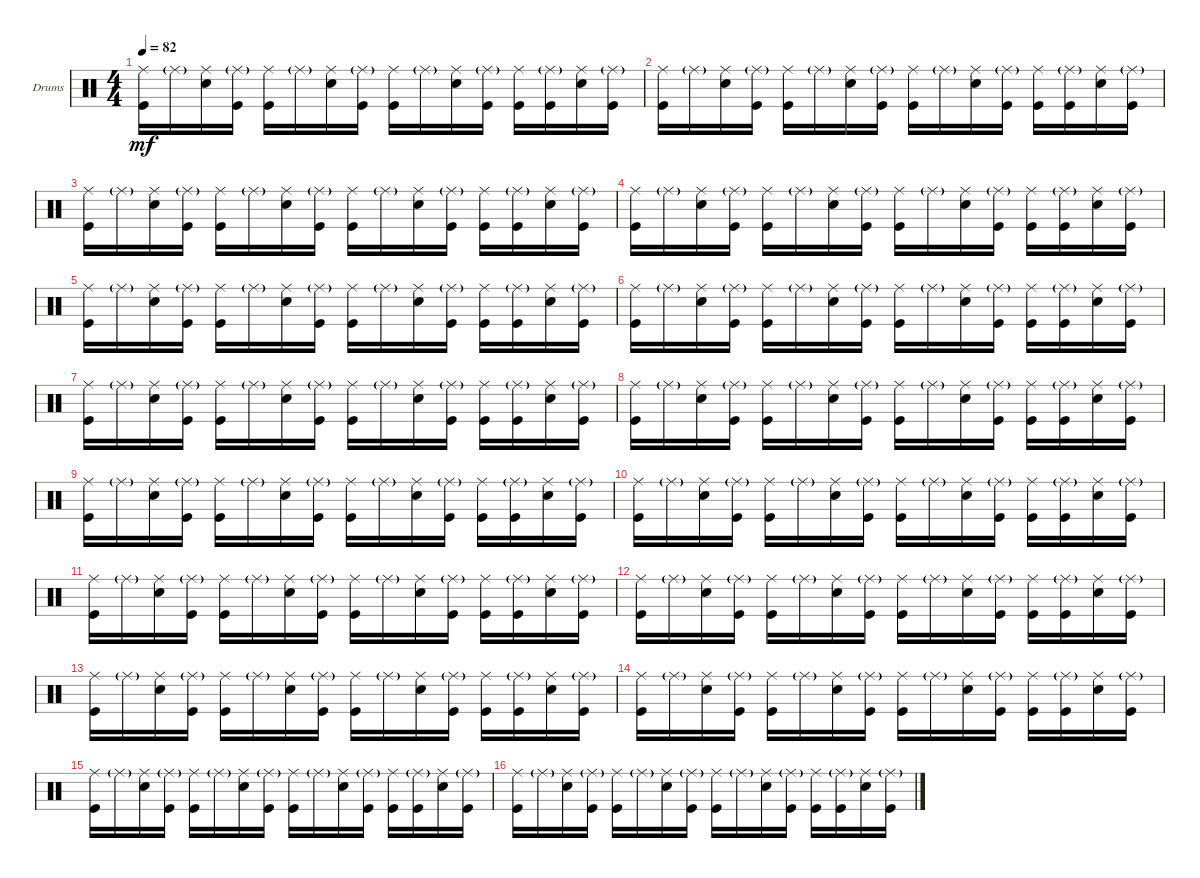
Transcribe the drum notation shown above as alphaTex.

\defaultSystemsLayout 4
\bracketExtendMode groupsimilarinstruments
\firstSystemTrackNameOrientation horizontal
\otherSystemsTrackNameOrientation horizontal
\track ("Drumkit" "Drums") {instrument percussion}
\staff {score}
\articulation defaults
\ts (4 4)
\tempo 82
\clef neutral
\scale
0.333333
\ks c
("Kick (hit)" "Ride (middle)").16{dy mf} "Ride (middle)"{g}.16 ("Snare (hit) 2" "Ride (middle)").16 ("Kick (hit)" "Ride (middle)"{g}).16 ("Kick (hit)" "Ride (middle)").16 "Ride (middle)"{g}.16 ("Snare (hit) 2" "Ride (middle)").16 ("Kick (hit)" "Ride (middle)"{g}).16 ("Kick (hit)" "Ride (middle)").16 "Ride (middle)"{g}.16 ("Snare (hit) 2" "Ride (middle)").16 ("Kick (hit)" "Ride (middle)"{g}).16 ("Kick (hit)" "Ride (middle)").16 ("Kick (hit)" "Ride (middle)"{g}).16 ("Snare (hit) 2" "Ride (middle)").16 ("Kick (hit)" "Ride (middle)"{g}).16 |
\scale
0.333333 ("Kick (hit)" "Ride (middle)").16 "Ride (middle)"{g}.16 ("Snare (hit) 2" "Ride (middle)").16 ("Kick (hit)" "Ride (middle)"{g}).16 ("Kick (hit)" "Ride (middle)").16 "Ride (middle)"{g}.16 ("Snare (hit) 2" "Ride (middle)").16 ("Kick (hit)" "Ride (middle)"{g}).16 ("Kick (hit)" "Ride (middle)").16 "Ride (middle)"{g}.16 ("Snare (hit) 2" "Ride (middle)").16 ("Kick (hit)" "Ride (middle)"{g}).16 ("Kick (hit)" "Ride (middle)").16 ("Kick (hit)" "Ride (middle)"{g}).16 ("Snare (hit) 2" "Ride (middle)").16 ("Kick (hit)" "Ride (middle)"{g}).16 |
\scale
0.333333 ("Kick (hit)" "Ride (middle)").16 "Ride (middle)"{g}.16 ("Snare (hit) 2" "Ride (middle)").16 ("Kick (hit)" "Ride (middle)"{g}).16 ("Kick (hit)" "Ride (middle)").16 "Ride (middle)"{g}.16 ("Snare (hit) 2" "Ride (middle)").16 ("Kick (hit)" "Ride (middle)"{g}).16 ("Kick (hit)" "Ride (middle)").16 "Ride (middle)"{g}.16 ("Snare (hit) 2" "Ride (middle)").16 ("Kick (hit)" "Ride (middle)"{g}).16 ("Kick (hit)" "Ride (middle)").16 ("Kick (hit)" "Ride (middle)"{g}).16 ("Snare (hit) 2" "Ride (middle)").16 ("Kick (hit)" "Ride (middle)"{g}).16 |
\scale
0.333333 ("Kick (hit)" "Ride (middle)").16 "Ride (middle)"{g}.16 ("Snare (hit) 2" "Ride (middle)").16 ("Kick (hit)" "Ride (middle)"{g}).16 ("Kick (hit)" "Ride (middle)").16 "Ride (middle)"{g}.16 ("Snare (hit) 2" "Ride (middle)").16 ("Kick (hit)" "Ride (middle)"{g}).16 ("Kick (hit)" "Ride (middle)").16 "Ride (middle)"{g}.16 ("Snare (hit) 2" "Ride (middle)").16 ("Kick (hit)" "Ride (middle)"{g}).16 ("Kick (hit)" "Ride (middle)").16 ("Kick (hit)" "Ride (middle)"{g}).16 ("Snare (hit) 2" "Ride (middle)").16 ("Kick (hit)" "Ride (middle)"{g}).16 |
\scale
0.333333 ("Kick (hit)" "Ride (middle)").16 "Ride (middle)"{g}.16 ("Snare (hit) 2" "Ride (middle)").16 ("Kick (hit)" "Ride (middle)"{g}).16 ("Kick (hit)" "Ride (middle)").16 "Ride (middle)"{g}.16 ("Snare (hit) 2" "Ride (middle)").16 ("Kick (hit)" "Ride (middle)"{g}).16 ("Kick (hit)" "Ride (middle)").16 "Ride (middle)"{g}.16 ("Snare (hit) 2" "Ride (middle)").16 ("Kick (hit)" "Ride (middle)"{g}).16 ("Kick (hit)" "Ride (middle)").16 ("Kick (hit)" "Ride (middle)"{g}).16 ("Snare (hit) 2" "Ride (middle)").16 ("Kick (hit)" "Ride (middle)"{g}).16 |
\scale
0.333333 ("Kick (hit)" "Ride (middle)").16 "Ride (middle)"{g}.16 ("Snare (hit) 2" "Ride (middle)").16 ("Kick (hit)" "Ride (middle)"{g}).16 ("Kick (hit)" "Ride (middle)").16 "Ride (middle)"{g}.16 ("Snare (hit) 2" "Ride (middle)").16 ("Kick (hit)" "Ride (middle)"{g}).16 ("Kick (hit)" "Ride (middle)").16 "Ride (middle)"{g}.16 ("Snare (hit) 2" "Ride (middle)").16 ("Kick (hit)" "Ride (middle)"{g}).16 ("Kick (hit)" "Ride (middle)").16 ("Kick (hit)" "Ride (middle)"{g}).16 ("Snare (hit) 2" "Ride (middle)").16 ("Kick (hit)" "Ride (middle)"{g}).16 |
\scale
0.333333 ("Kick (hit)" "Ride (middle)").16 "Ride (middle)"{g}.16 ("Snare (hit) 2" "Ride (middle)").16 ("Kick (hit)" "Ride (middle)"{g}).16 ("Kick (hit)" "Ride (middle)").16 "Ride (middle)"{g}.16 ("Snare (hit) 2" "Ride (middle)").16 ("Kick (hit)" "Ride (middle)"{g}).16 ("Kick (hit)" "Ride (middle)").16 "Ride (middle)"{g}.16 ("Snare (hit) 2" "Ride (middle)").16 ("Kick (hit)" "Ride (middle)"{g}).16 ("Kick (hit)" "Ride (middle)").16 ("Kick (hit)" "Ride (middle)"{g}).16 ("Snare (hit) 2" "Ride (middle)").16 ("Kick (hit)" "Ride (middle)"{g}).16 |
\scale
0.333333 ("Kick (hit)" "Ride (middle)").16 "Ride (middle)"{g}.16 ("Snare (hit) 2" "Ride (middle)").16 ("Kick (hit)" "Ride (middle)"{g}).16 ("Kick (hit)" "Ride (middle)").16 "Ride (middle)"{g}.16 ("Snare (hit) 2" "Ride (middle)").16 ("Kick (hit)" "Ride (middle)"{g}).16 ("Kick (hit)" "Ride (middle)").16 "Ride (middle)"{g}.16 ("Snare (hit) 2" "Ride (middle)").16 ("Kick (hit)" "Ride (middle)"{g}).16 ("Kick (hit)" "Ride (middle)").16 ("Kick (hit)" "Ride (middle)"{g}).16 ("Snare (hit) 2" "Ride (middle)").16 ("Kick (hit)" "Ride (middle)"{g}).16 |
\scale
0.333333 ("Kick (hit)" "Ride (middle)").16 "Ride (middle)"{g}.16 ("Snare (hit) 2" "Ride (middle)").16 ("Kick (hit)" "Ride (middle)"{g}).16 ("Kick (hit)" "Ride (middle)").16 "Ride (middle)"{g}.16 ("Snare (hit) 2" "Ride (middle)").16 ("Kick (hit)" "Ride (middle)"{g}).16 ("Kick (hit)" "Ride (middle)").16 "Ride (middle)"{g}.16 ("Snare (hit) 2" "Ride (middle)").16 ("Kick (hit)" "Ride (middle)"{g}).16 ("Kick (hit)" "Ride (middle)").16 ("Kick (hit)" "Ride (middle)"{g}).16 ("Snare (hit) 2" "Ride (middle)").16 ("Kick (hit)" "Ride (middle)"{g}).16 |
\scale
0.333333 ("Kick (hit)" "Ride (middle)").16 "Ride (middle)"{g}.16 ("Snare (hit) 2" "Ride (middle)").16 ("Kick (hit)" "Ride (middle)"{g}).16 ("Kick (hit)" "Ride (middle)").16 "Ride (middle)"{g}.16 ("Snare (hit) 2" "Ride (middle)").16 ("Kick (hit)" "Ride (middle)"{g}).16 ("Kick (hit)" "Ride (middle)").16 "Ride (middle)"{g}.16 ("Snare (hit) 2" "Ride (middle)").16 ("Kick (hit)" "Ride (middle)"{g}).16 ("Kick (hit)" "Ride (middle)").16 ("Kick (hit)" "Ride (middle)"{g}).16 ("Snare (hit) 2" "Ride (middle)").16 ("Kick (hit)" "Ride (middle)"{g}).16 |
\scale
0.333333 ("Kick (hit)" "Ride (middle)").16 "Ride (middle)"{g}.16 ("Snare (hit) 2" "Ride (middle)").16 ("Kick (hit)" "Ride (middle)"{g}).16 ("Kick (hit)" "Ride (middle)").16 "Ride (middle)"{g}.16 ("Snare (hit) 2" "Ride (middle)").16 ("Kick (hit)" "Ride (middle)"{g}).16 ("Kick (hit)" "Ride (middle)").16 "Ride (middle)"{g}.16 ("Snare (hit) 2" "Ride (middle)").16 ("Kick (hit)" "Ride (middle)"{g}).16 ("Kick (hit)" "Ride (middle)").16 ("Kick (hit)" "Ride (middle)"{g}).16 ("Snare (hit) 2" "Ride (middle)").16 ("Kick (hit)" "Ride (middle)"{g}).16 |
\scale
0.333333 ("Kick (hit)" "Ride (middle)").16 "Ride (middle)"{g}.16 ("Snare (hit) 2" "Ride (middle)").16 ("Kick (hit)" "Ride (middle)"{g}).16 ("Kick (hit)" "Ride (middle)").16 "Ride (middle)"{g}.16 ("Snare (hit) 2" "Ride (middle)").16 ("Kick (hit)" "Ride (middle)"{g}).16 ("Kick (hit)" "Ride (middle)").16 "Ride (middle)"{g}.16 ("Snare (hit) 2" "Ride (middle)").16 ("Kick (hit)" "Ride (middle)"{g}).16 ("Kick (hit)" "Ride (middle)").16 ("Kick (hit)" "Ride (middle)"{g}).16 ("Snare (hit) 2" "Ride (middle)").16 ("Kick (hit)" "Ride (middle)"{g}).16 |
\scale
0.333333 ("Kick (hit)" "Ride (middle)").16 "Ride (middle)"{g}.16 ("Snare (hit) 2" "Ride (middle)").16 ("Kick (hit)" "Ride (middle)"{g}).16 ("Kick (hit)" "Ride (middle)").16 "Ride (middle)"{g}.16 ("Snare (hit) 2" "Ride (middle)").16 ("Kick (hit)" "Ride (middle)"{g}).16 ("Kick (hit)" "Ride (middle)").16 "Ride (middle)"{g}.16 ("Snare (hit) 2" "Ride (middle)").16 ("Kick (hit)" "Ride (middle)"{g}).16 ("Kick (hit)" "Ride (middle)").16 ("Kick (hit)" "Ride (middle)"{g}).16 ("Snare (hit) 2" "Ride (middle)").16 ("Kick (hit)" "Ride (middle)"{g}).16 |
\scale
0.333333 ("Kick (hit)" "Ride (middle)").16 "Ride (middle)"{g}.16 ("Snare (hit) 2" "Ride (middle)").16 ("Kick (hit)" "Ride (middle)"{g}).16 ("Kick (hit)" "Ride (middle)").16 "Ride (middle)"{g}.16 ("Snare (hit) 2" "Ride (middle)").16 ("Kick (hit)" "Ride (middle)"{g}).16 ("Kick (hit)" "Ride (middle)").16 "Ride (middle)"{g}.16 ("Snare (hit) 2" "Ride (middle)").16 ("Kick (hit)" "Ride (middle)"{g}).16 ("Kick (hit)" "Ride (middle)").16 ("Kick (hit)" "Ride (middle)"{g}).16 ("Snare (hit) 2" "Ride (middle)").16 ("Kick (hit)" "Ride (middle)"{g}).16 |
\scale
0.333333 ("Kick (hit)" "Ride (middle)").16 "Ride (middle)"{g}.16 ("Snare (hit) 2" "Ride (middle)").16 ("Kick (hit)" "Ride (middle)"{g}).16 ("Kick (hit)" "Ride (middle)").16 "Ride (middle)"{g}.16 ("Snare (hit) 2" "Ride (middle)").16 ("Kick (hit)" "Ride (middle)"{g}).16 ("Kick (hit)" "Ride (middle)").16 "Ride (middle)"{g}.16 ("Snare (hit) 2" "Ride (middle)").16 ("Kick (hit)" "Ride (middle)"{g}).16 ("Kick (hit)" "Ride (middle)").16 ("Kick (hit)" "Ride (middle)"{g}).16 ("Snare (hit) 2" "Ride (middle)").16 ("Kick (hit)" "Ride (middle)"{g}).16 |
\scale
0.333333 ("Kick (hit)" "Ride (middle)").16 "Ride (middle)"{g}.16 ("Snare (hit) 2" "Ride (middle)").16 ("Kick (hit)" "Ride (middle)"{g}).16 ("Kick (hit)" "Ride (middle)").16 "Ride (middle)"{g}.16 ("Snare (hit) 2" "Ride (middle)").16 ("Kick (hit)" "Ride (middle)"{g}).16 ("Kick (hit)" "Ride (middle)").16 "Ride (middle)"{g}.16 ("Snare (hit) 2" "Ride (middle)").16 ("Kick (hit)" "Ride (middle)"{g}).16 ("Kick (hit)" "Ride (middle)").16 ("Kick (hit)" "Ride (middle)"{g}).16 ("Snare (hit) 2" "Ride (middle)").16 ("Kick (hit)" "Ride (middle)"{g}).16
